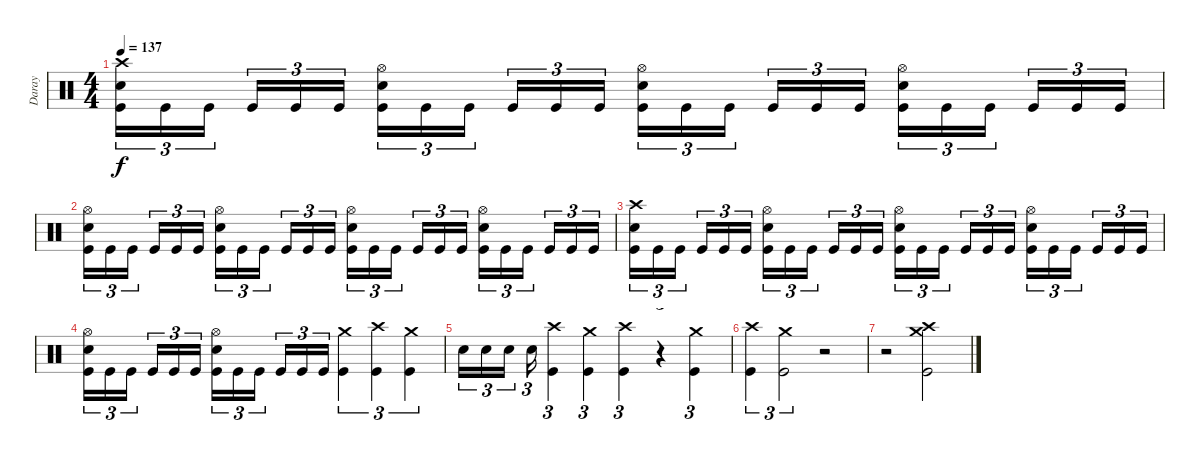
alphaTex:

\track ("Daray" "Daray") {instrument percussion}
\staff {score}
\articulation defaults
\ts (4 4)
\tempo 137
\clef neutral
\ks c
("Crash high (hit)" "Electric Snare (hit)" "Kick (hit)").16{tu (3 2) dy f} "Kick (hit)".16{tu (3 2)} "Kick (hit)".16{tu (3 2) beam splitsecondary} "Kick (hit)".16{tu (3 2)} "Kick (hit)".16{tu (3 2)} "Kick (hit)".16{tu (3 2)} ("Hi-Hat (open)" "Electric Snare (hit)" "Kick (hit)").16{tu (3 2)} "Kick (hit)".16{tu (3 2)} "Kick (hit)".16{tu (3 2) beam splitsecondary} "Kick (hit)".16{tu (3 2)} "Kick (hit)".16{tu (3 2)} "Kick (hit)".16{tu (3 2)} ("Hi-Hat (open)" "Electric Snare (hit)" "Kick (hit)").16{tu (3 2)} "Kick (hit)".16{tu (3 2)} "Kick (hit)".16{tu (3 2) beam splitsecondary} "Kick (hit)".16{tu (3 2)} "Kick (hit)".16{tu (3 2)} "Kick (hit)".16{tu (3 2)} ("Hi-Hat (open)" "Electric Snare (hit)" "Kick (hit)").16{tu (3 2)} "Kick (hit)".16{tu (3 2)} "Kick (hit)".16{tu (3 2) beam splitsecondary} "Kick (hit)".16{tu (3 2)} "Kick (hit)".16{tu (3 2)} "Kick (hit)".16{tu (3 2)} |
("Hi-Hat (open)" "Electric Snare (hit)" "Kick (hit)").16{tu (3 2)} "Kick (hit)".16{tu (3 2)} "Kick (hit)".16{tu (3 2) beam splitsecondary} "Kick (hit)".16{tu (3 2)} "Kick (hit)".16{tu (3 2)} "Kick (hit)".16{tu (3 2)} ("Hi-Hat (open)" "Electric Snare (hit)" "Kick (hit)").16{tu (3 2)} "Kick (hit)".16{tu (3 2)} "Kick (hit)".16{tu (3 2) beam splitsecondary} "Kick (hit)".16{tu (3 2)} "Kick (hit)".16{tu (3 2)} "Kick (hit)".16{tu (3 2)} ("Hi-Hat (open)" "Electric Snare (hit)" "Kick (hit)").16{tu (3 2)} "Kick (hit)".16{tu (3 2)} "Kick (hit)".16{tu (3 2) beam splitsecondary} "Kick (hit)".16{tu (3 2)} "Kick (hit)".16{tu (3 2)} "Kick (hit)".16{tu (3 2)} ("Hi-Hat (open)" "Electric Snare (hit)" "Kick (hit)").16{tu (3 2)} "Kick (hit)".16{tu (3 2)} "Kick (hit)".16{tu (3 2) beam splitsecondary} "Kick (hit)".16{tu (3 2)} "Kick (hit)".16{tu (3 2)} "Kick (hit)".16{tu (3 2)} |
("Crash high (hit)" "Electric Snare (hit)" "Kick (hit)").16{tu (3 2)} "Kick (hit)".16{tu (3 2)} "Kick (hit)".16{tu (3 2) beam splitsecondary} "Kick (hit)".16{tu (3 2)} "Kick (hit)".16{tu (3 2)} "Kick (hit)".16{tu (3 2)} ("Hi-Hat (open)" "Electric Snare (hit)" "Kick (hit)").16{tu (3 2)} "Kick (hit)".16{tu (3 2)} "Kick (hit)".16{tu (3 2) beam splitsecondary} "Kick (hit)".16{tu (3 2)} "Kick (hit)".16{tu (3 2)} "Kick (hit)".16{tu (3 2)} ("Hi-Hat (open)" "Electric Snare (hit)" "Kick (hit)").16{tu (3 2)} "Kick (hit)".16{tu (3 2)} "Kick (hit)".16{tu (3 2) beam splitsecondary} "Kick (hit)".16{tu (3 2)} "Kick (hit)".16{tu (3 2)} "Kick (hit)".16{tu (3 2)} ("Hi-Hat (open)" "Electric Snare (hit)" "Kick (hit)").16{tu (3 2)} "Kick (hit)".16{tu (3 2)} "Kick (hit)".16{tu (3 2) beam splitsecondary} "Kick (hit)".16{tu (3 2)} "Kick (hit)".16{tu (3 2)} "Kick (hit)".16{tu (3 2)} |
("Hi-Hat (open)" "Electric Snare (hit)" "Kick (hit)").16{tu (3 2)} "Kick (hit)".16{tu (3 2)} "Kick (hit)".16{tu (3 2) beam splitsecondary} "Kick (hit)".16{tu (3 2)} "Kick (hit)".16{tu (3 2)} "Kick (hit)".16{tu (3 2)} ("Hi-Hat (open)" "Electric Snare (hit)" "Kick (hit)").16{tu (3 2)} "Kick (hit)".16{tu (3 2)} "Kick (hit)".16{tu (3 2) beam splitsecondary} "Kick (hit)".16{tu (3 2)} "Kick (hit)".16{tu (3 2)} "Kick (hit)".16{tu (3 2)} ("Crash medium (hit)" "Kick (hit)").4{tu (3 2)} ("Crash high (hit)" "Kick (hit)").4{tu (3 2)} ("Crash medium (hit)" "Kick (hit)").4{tu (3 2)} |
"Electric Snare (hit)".16{tu (3 2)} "Electric Snare (hit)".16{tu (3 2)} "Electric Snare (hit)".16{tu (3 2) beam splitsecondary} "Electric Snare (hit)".16{tu (3 2)} ("Crash high (hit)" "Kick (hit)").4{tu (3 2)} ("Crash medium (hit)" "Kick (hit)").4{tu (3 2)} ("Crash high (hit)" "Kick (hit)").4{tu (3 2)} r.4{tu (3 2)} ("Crash medium (hit)" "Kick (hit)").4{tu (3 2)} |
("Crash high (hit)" "Kick (hit)").4{tu (3 2)} ("Crash medium (hit)" "Kick (hit)").2{tu (3 2)} r.2 |
r.2 ("Crash high (hit)" "Crash medium (hit)" "Kick (hit)").2
